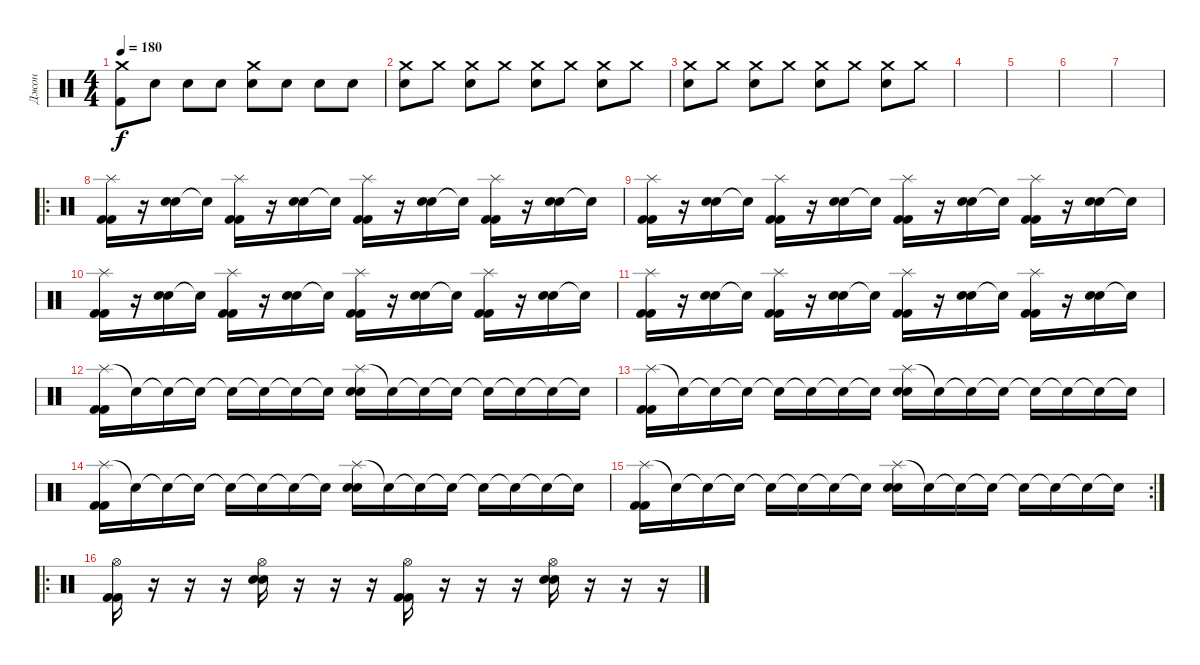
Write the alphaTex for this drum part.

\track ("Джон" "Джон") {instrument percussion}
\staff {score}
\articulation defaults
\ts (4 4)
\tempo 180
\clef neutral
\ks c
("Crash medium (hit)" "Kick (hit) 2").8{dy f} "Snare (hit)".8 "Snare (hit)".8 "Snare (hit)".8 ("Crash medium (hit)" "Electric Snare (hit)").8 "Snare (hit)".8 "Snare (hit)".8 "Snare (hit)".8 |
("Crash medium (hit)" "Electric Snare (hit)").8 "Crash medium (hit)".8 ("Crash medium (hit)" "Electric Snare (hit)").8 "Crash medium (hit)".8 ("Crash medium (hit)" "Electric Snare (hit)").8 "Crash medium (hit)".8 ("Crash medium (hit)" "Electric Snare (hit)").8 "Crash medium (hit)".8 |
("Crash medium (hit)" "Electric Snare (hit)").8 "Crash medium (hit)".8 ("Crash medium (hit)" "Electric Snare (hit)").8 "Crash medium (hit)".8 ("Crash medium (hit)" "Electric Snare (hit)").8 "Crash medium (hit)".8 ("Crash medium (hit)" "Electric Snare (hit)").8 "Crash medium (hit)".8 |
|
|
|
|
\ro
("Splash (hit)" "Kick (hit) 2" "Kick (hit) 2").16 r.16 ("Electric Snare (hit)" "Electric Snare (hit)").16 "Snare (hit)"{t}.16 ("Splash (hit)" "Kick (hit) 2" "Kick (hit) 2").16 r.16 ("Electric Snare (hit)" "Electric Snare (hit)").16 "Snare (hit)"{t}.16 ("Splash (hit)" "Kick (hit) 2" "Kick (hit) 2").16 r.16 ("Electric Snare (hit)" "Electric Snare (hit)").16 "Snare (hit)"{t}.16 ("Splash (hit)" "Kick (hit) 2" "Kick (hit) 2").16 r.16 ("Electric Snare (hit)" "Electric Snare (hit)").16 "Snare (hit)"{t}.16 |
("Splash (hit)" "Kick (hit) 2" "Kick (hit) 2").16 r.16 ("Electric Snare (hit)" "Electric Snare (hit)").16 "Snare (hit)"{t}.16 ("Splash (hit)" "Kick (hit) 2" "Kick (hit) 2").16 r.16 ("Electric Snare (hit)" "Electric Snare (hit)").16 "Snare (hit)"{t}.16 ("Splash (hit)" "Kick (hit) 2" "Kick (hit) 2").16 r.16 ("Electric Snare (hit)" "Electric Snare (hit)").16 "Snare (hit)"{t}.16 ("Splash (hit)" "Kick (hit) 2" "Kick (hit) 2").16 r.16 ("Electric Snare (hit)" "Electric Snare (hit)").16 "Snare (hit)"{t}.16 |
("Splash (hit)" "Kick (hit) 2" "Kick (hit) 2").16 r.16 ("Electric Snare (hit)" "Electric Snare (hit)").16 "Snare (hit)"{t}.16 ("Splash (hit)" "Kick (hit) 2" "Kick (hit) 2").16 r.16 ("Electric Snare (hit)" "Electric Snare (hit)").16 "Snare (hit)"{t}.16 ("Splash (hit)" "Kick (hit) 2" "Kick (hit) 2").16 r.16 ("Electric Snare (hit)" "Electric Snare (hit)").16 "Snare (hit)"{t}.16 ("Splash (hit)" "Kick (hit) 2" "Kick (hit) 2").16 r.16 ("Electric Snare (hit)" "Electric Snare (hit)").16 "Snare (hit)"{t}.16 |
("Splash (hit)" "Kick (hit) 2" "Kick (hit) 2").16 r.16 ("Electric Snare (hit)" "Electric Snare (hit)").16 "Snare (hit)"{t}.16 ("Splash (hit)" "Kick (hit) 2" "Kick (hit) 2").16 r.16 ("Electric Snare (hit)" "Electric Snare (hit)").16 "Snare (hit)"{t}.16 ("Splash (hit)" "Kick (hit) 2" "Kick (hit) 2").16 r.16 ("Electric Snare (hit)" "Electric Snare (hit)").16 "Snare (hit)"{t}.16 ("Splash (hit)" "Kick (hit) 2" "Kick (hit) 2").16 r.16 ("Electric Snare (hit)" "Electric Snare (hit)").16 "Snare (hit)"{t}.16 |
("Splash (hit)" "Kick (hit) 2" "Kick (hit) 2").16 "Snare (hit)"{t}.16 "Snare (hit)"{t}.16 "Snare (hit)"{t}.16 "Snare (hit)"{t}.16 "Snare (hit)"{t}.16 "Snare (hit)"{t}.16 "Snare (hit)"{t}.16 ("Splash (hit)" "Electric Snare (hit)" "Electric Snare (hit)").16 "Snare (hit)"{t}.16 "Snare (hit)"{t}.16 "Snare (hit)"{t}.16 "Snare (hit)"{t}.16 "Snare (hit)"{t}.16 "Snare (hit)"{t}.16 "Snare (hit)"{t}.16 |
("Splash (hit)" "Kick (hit) 2" "Kick (hit) 2").16 "Snare (hit)"{t}.16 "Snare (hit)"{t}.16 "Snare (hit)"{t}.16 "Snare (hit)"{t}.16 "Snare (hit)"{t}.16 "Snare (hit)"{t}.16 "Snare (hit)"{t}.16 ("Splash (hit)" "Electric Snare (hit)" "Electric Snare (hit)").16 "Snare (hit)"{t}.16 "Snare (hit)"{t}.16 "Snare (hit)"{t}.16 "Snare (hit)"{t}.16 "Snare (hit)"{t}.16 "Snare (hit)"{t}.16 "Snare (hit)"{t}.16 |
("Splash (hit)" "Kick (hit) 2" "Kick (hit) 2").16 "Snare (hit)"{t}.16 "Snare (hit)"{t}.16 "Snare (hit)"{t}.16 "Snare (hit)"{t}.16 "Snare (hit)"{t}.16 "Snare (hit)"{t}.16 "Snare (hit)"{t}.16 ("Splash (hit)" "Electric Snare (hit)" "Electric Snare (hit)").16 "Snare (hit)"{t}.16 "Snare (hit)"{t}.16 "Snare (hit)"{t}.16 "Snare (hit)"{t}.16 "Snare (hit)"{t}.16 "Snare (hit)"{t}.16 "Snare (hit)"{t}.16 |
\rc 2
("Splash (hit)" "Kick (hit) 2" "Kick (hit) 2").16 "Snare (hit)"{t}.16 "Snare (hit)"{t}.16 "Snare (hit)"{t}.16 "Snare (hit)"{t}.16 "Snare (hit)"{t}.16 "Snare (hit)"{t}.16 "Snare (hit)"{t}.16 ("Splash (hit)" "Electric Snare (hit)" "Electric Snare (hit)").16 "Snare (hit)"{t}.16 "Snare (hit)"{t}.16 "Snare (hit)"{t}.16 "Snare (hit)"{t}.16 "Snare (hit)"{t}.16 "Snare (hit)"{t}.16 "Snare (hit)"{t}.16 |
\ro
("Hi-Hat (open)" "Kick (hit) 2" "Kick (hit) 2").16 r.16 r.16 r.16 ("Hi-Hat (open)" "Electric Snare (hit)" "Electric Snare (hit)").16 r.16 r.16 r.16 ("Hi-Hat (open)" "Kick (hit) 2" "Kick (hit) 2").16 r.16 r.16 r.16 ("Hi-Hat (open)" "Electric Snare (hit)" "Electric Snare (hit)").16 r.16 r.16 r.16
